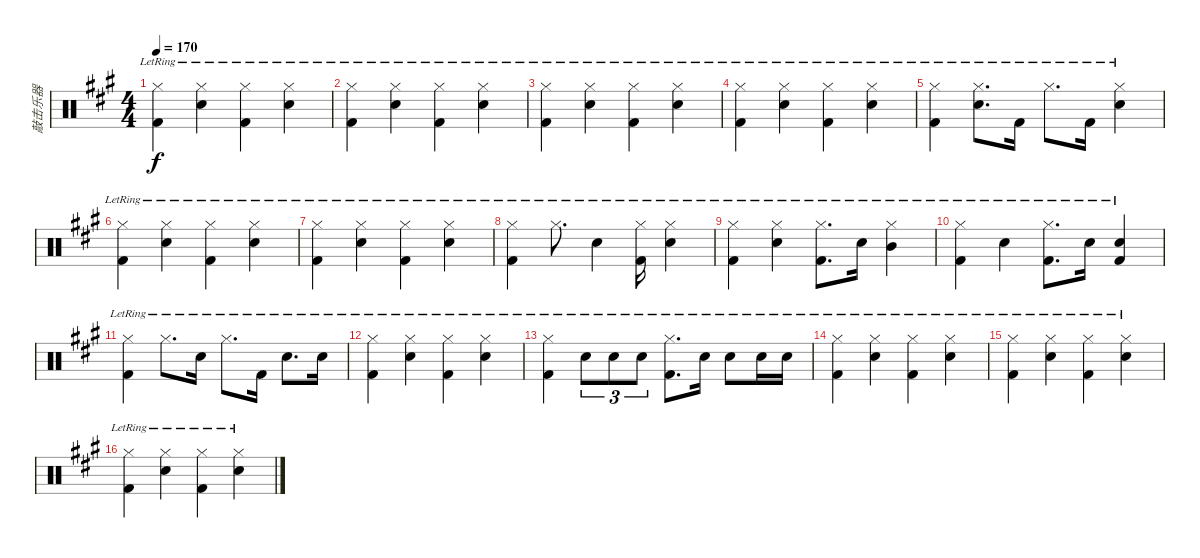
\track ("敲击乐器" "敲击乐器") {instrument percussion}
\staff {score}
\articulation defaults
\ts (4 4)
\tempo 170
\clef neutral
\ks a
("Hi-Hat (closed)"{lr} "Kick (hit) 2"{lr}).4{dy f} ("Hi-Hat (closed)"{lr} "Snare (hit) 2"{lr}).4 ("Hi-Hat (closed)"{lr} "Kick (hit) 2"{lr}).4 ("Hi-Hat (closed)"{lr} "Snare (hit) 2"{lr}).4 |
("Hi-Hat (closed)"{lr} "Kick (hit) 2"{lr}).4 ("Hi-Hat (closed)"{lr} "Snare (hit) 2"{lr}).4 ("Hi-Hat (closed)"{lr} "Kick (hit) 2"{lr}).4 ("Hi-Hat (closed)"{lr} "Snare (hit) 2"{lr}).4 |
("Hi-Hat (closed)"{lr} "Kick (hit) 2"{lr}).4 ("Hi-Hat (closed)"{lr} "Snare (hit) 2"{lr}).4 ("Hi-Hat (closed)"{lr} "Kick (hit) 2"{lr}).4 ("Hi-Hat (closed)"{lr} "Snare (hit) 2"{lr}).4 |
("Hi-Hat (closed)"{lr} "Kick (hit) 2"{lr}).4 ("Hi-Hat (closed)"{lr} "Snare (hit) 2"{lr}).4 ("Hi-Hat (closed)"{lr} "Kick (hit) 2"{lr}).4 ("Hi-Hat (closed)"{lr} "Snare (hit) 2"{lr}).4 |
("Hi-Hat (closed)"{lr} "Kick (hit) 2"{lr}).4 ("Hi-Hat (closed)"{lr} "Snare (hit) 2"{lr}).8{d} "Kick (hit) 2"{lr}.16 "Hi-Hat (closed)"{lr}.8{d} "Kick (hit) 2"{lr}.16 ("Hi-Hat (closed)"{lr} "Snare (hit) 2"{lr}).4 |
("Hi-Hat (closed)"{lr} "Kick (hit) 2"{lr}).4 ("Hi-Hat (closed)"{lr} "Snare (hit) 2"{lr}).4 ("Hi-Hat (closed)"{lr} "Kick (hit) 2"{lr}).4 ("Hi-Hat (closed)"{lr} "Snare (hit) 2"{lr}).4 |
("Hi-Hat (closed)"{lr} "Kick (hit) 2"{lr}).4 ("Hi-Hat (closed)"{lr} "Snare (hit) 2"{lr}).4 ("Hi-Hat (closed)"{lr} "Kick (hit) 2"{lr}).4 ("Hi-Hat (closed)"{lr} "Snare (hit) 2"{lr}).4 |
("Hi-Hat (closed)"{lr} "Kick (hit) 2"{lr}).4 "Hi-Hat (closed)"{lr}.8{d} "Snare (hit) 2"{lr}.4 ("Hi-Hat (closed)"{lr} "Kick (hit) 2"{lr}).16 ("Hi-Hat (closed)"{lr} "Snare (hit) 2"{lr}).4 |
("Hi-Hat (closed)"{lr} "Kick (hit) 2"{lr}).4 ("Hi-Hat (closed)"{lr} "Snare (hit) 2"{lr}).4 ("Hi-Hat (closed)"{lr} "Kick (hit) 2"{lr}).8{d} "Snare (hit) 2"{lr}.16 ("Hi-Hat (closed)"{lr} "Mid Tom (hit)"{lr}).4 |
("Hi-Hat (closed)"{lr} "Kick (hit) 2"{lr}).4 "Snare (hit) 2"{lr}.4 ("Hi-Hat (closed)"{lr} "Kick (hit) 2"{lr}).8{d} "Snare (hit) 2"{lr}.16 ("Snare (hit) 2"{lr} "Kick (hit) 2"{lr}).4 |
("Hi-Hat (closed)"{lr} "Kick (hit) 2"{lr}).4 "Hi-Hat (closed)"{lr}.8{d} "Snare (hit) 2"{lr}.16 "Hi-Hat (closed)"{lr}.8{d} "Kick (hit) 2"{lr}.16 "Snare (hit) 2"{lr}.8{d} "Snare (hit) 2"{lr}.16 |
("Hi-Hat (closed)"{lr} "Kick (hit) 2"{lr}).4 ("Hi-Hat (closed)"{lr} "Snare (hit) 2"{lr}).4 ("Hi-Hat (closed)"{lr} "Kick (hit) 2"{lr}).4 ("Hi-Hat (closed)"{lr} "Snare (hit) 2"{lr}).4 |
("Hi-Hat (closed)"{lr} "Kick (hit) 2"{lr}).4 "Snare (hit) 2"{lr}.8{tu (3 2)} "Snare (hit) 2"{lr}.8{tu (3 2)} "Snare (hit) 2"{lr}.8{tu (3 2)} ("Hi-Hat (closed)"{lr} "Kick (hit) 2"{lr}).8{d} "Snare (hit) 2"{lr}.16 "Snare (hit) 2"{lr}.8 "Snare (hit) 2"{lr}.16 "Snare (hit) 2"{lr}.16 |
("Hi-Hat (closed)"{lr} "Kick (hit) 2"{lr}).4 ("Hi-Hat (closed)"{lr} "Snare (hit) 2"{lr}).4 ("Hi-Hat (closed)"{lr} "Kick (hit) 2"{lr}).4 ("Hi-Hat (closed)"{lr} "Snare (hit) 2"{lr}).4 |
("Hi-Hat (closed)"{lr} "Kick (hit) 2"{lr}).4 ("Hi-Hat (closed)"{lr} "Snare (hit) 2"{lr}).4 ("Hi-Hat (closed)"{lr} "Kick (hit) 2"{lr}).4 ("Hi-Hat (closed)"{lr} "Snare (hit) 2"{lr}).4 |
("Hi-Hat (closed)"{lr} "Kick (hit) 2"{lr}).4 ("Hi-Hat (closed)"{lr} "Snare (hit) 2"{lr}).4 ("Hi-Hat (closed)"{lr} "Kick (hit) 2"{lr}).4 ("Hi-Hat (closed)"{lr} "Snare (hit) 2"{lr}).4
